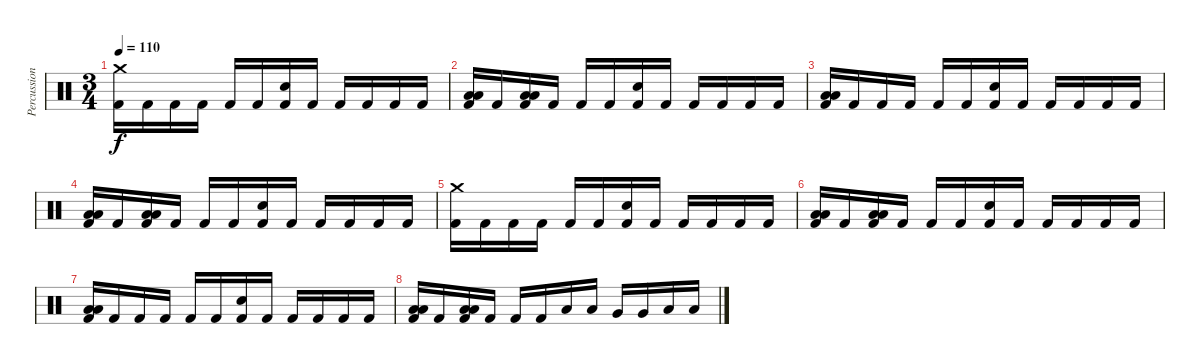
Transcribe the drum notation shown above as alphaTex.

\track ("Percussion" "Percussion") {instrument percussion}
\staff {score}
\articulation defaults
\ts (3 4)
\tempo 110
\clef neutral
\ks c
("Crash medium (hit)" "Kick (hit) 2").16{dy f} "Kick (hit) 2".16 "Kick (hit) 2".16 "Kick (hit) 2".16 "Kick (hit) 2".16 "Kick (hit) 2".16 ("Snare (hit) 2" "Kick (hit) 2").16 "Kick (hit) 2".16 "Kick (hit) 2".16 "Kick (hit) 2".16 "Kick (hit) 2".16 "Kick (hit) 2".16 |
("Low Tom (hit)" "Low Floor Tom (hit)" "Kick (hit) 2").16 "Kick (hit) 2".16 ("Low Tom (hit)" "Low Floor Tom (hit)" "Kick (hit) 2").16 "Kick (hit) 2".16 "Kick (hit) 2".16 "Kick (hit) 2".16 ("Snare (hit) 2" "Kick (hit) 2").16 "Kick (hit) 2".16 "Kick (hit) 2".16 "Kick (hit) 2".16 "Kick (hit) 2".16 "Kick (hit) 2".16 |
("Low Tom (hit)" "Low Floor Tom (hit)" "Kick (hit) 2").16 "Kick (hit) 2".16 "Kick (hit) 2".16 "Kick (hit) 2".16 "Kick (hit) 2".16 "Kick (hit) 2".16 ("Snare (hit) 2" "Kick (hit) 2").16 "Kick (hit) 2".16 "Kick (hit) 2".16 "Kick (hit) 2".16 "Kick (hit) 2".16 "Kick (hit) 2".16 |
("Low Tom (hit)" "Low Floor Tom (hit)" "Kick (hit) 2").16 "Kick (hit) 2".16 ("Low Tom (hit)" "Low Floor Tom (hit)" "Kick (hit) 2").16 "Kick (hit) 2".16 "Kick (hit) 2".16 "Kick (hit) 2".16 ("Snare (hit) 2" "Kick (hit) 2").16 "Kick (hit) 2".16 "Kick (hit) 2".16 "Kick (hit) 2".16 "Kick (hit) 2".16 "Kick (hit) 2".16 |
("Crash medium (hit)" "Kick (hit) 2").16 "Kick (hit) 2".16 "Kick (hit) 2".16 "Kick (hit) 2".16 "Kick (hit) 2".16 "Kick (hit) 2".16 ("Snare (hit) 2" "Kick (hit) 2").16 "Kick (hit) 2".16 "Kick (hit) 2".16 "Kick (hit) 2".16 "Kick (hit) 2".16 "Kick (hit) 2".16 |
("Low Tom (hit)" "Low Floor Tom (hit)" "Kick (hit) 2").16 "Kick (hit) 2".16 ("Low Tom (hit)" "Low Floor Tom (hit)" "Kick (hit) 2").16 "Kick (hit) 2".16 "Kick (hit) 2".16 "Kick (hit) 2".16 ("Snare (hit) 2" "Kick (hit) 2").16 "Kick (hit) 2".16 "Kick (hit) 2".16 "Kick (hit) 2".16 "Kick (hit) 2".16 "Kick (hit) 2".16 |
("Low Tom (hit)" "Low Floor Tom (hit)" "Kick (hit) 2").16 "Kick (hit) 2".16 "Kick (hit) 2".16 "Kick (hit) 2".16 "Kick (hit) 2".16 "Kick (hit) 2".16 ("Snare (hit) 2" "Kick (hit) 2").16 "Kick (hit) 2".16 "Kick (hit) 2".16 "Kick (hit) 2".16 "Kick (hit) 2".16 "Kick (hit) 2".16 |
("Low Tom (hit)" "Low Floor Tom (hit)" "Kick (hit) 2").16 "Kick (hit) 2".16 ("Low Tom (hit)" "Low Floor Tom (hit)" "Kick (hit) 2").16 "Kick (hit) 2".16 "Kick (hit) 2".16 "Kick (hit) 2".16 "Low Tom (hit)".16 "Low Tom (hit)".16 "Very Low Tom (hit)".16 "Very Low Tom (hit)".16 "Low Floor Tom (hit)".16 "Low Floor Tom (hit)".16
